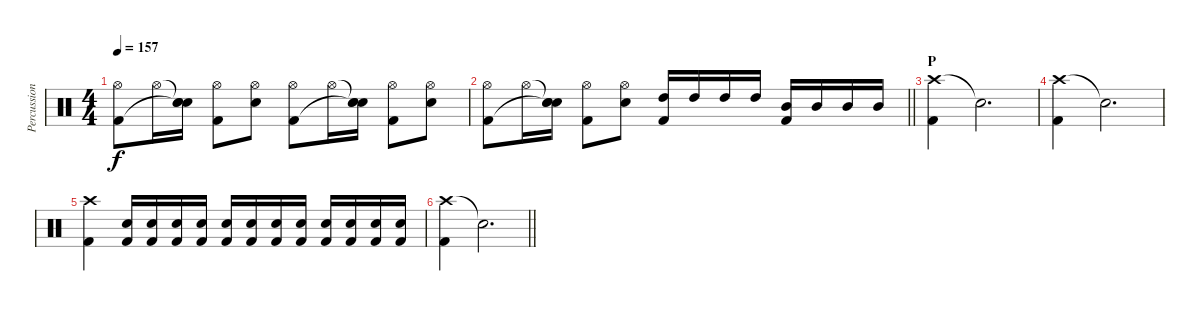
\track ("Percussion" "Percussion") {instrument percussion}
\staff {score}
\articulation defaults
\ts (4 4)
\tempo 157
\clef neutral
\ks c
("Hi-Hat (open)" "Kick (hit) 2").8{dy f} "Hi-Hat (open)".16 ("Snare (hit)"{t} "Snare (hit)"{t} "Electric Snare (hit)").16 ("Hi-Hat (open)" "Kick (hit) 2").8 ("Hi-Hat (open)" "Electric Snare (hit)").8 ("Hi-Hat (open)" "Kick (hit) 2").8 "Hi-Hat (open)".16 ("Snare (hit)"{t} "Snare (hit)"{t} "Electric Snare (hit)").16 ("Hi-Hat (open)" "Kick (hit) 2").8 ("Hi-Hat (open)" "Electric Snare (hit)").8 |
\barLineRight lightlight
("Hi-Hat (open)" "Kick (hit) 2").8 "Hi-Hat (open)".16 ("Snare (hit)"{t} "Snare (hit)"{t} "Electric Snare (hit)").16 ("Hi-Hat (open)" "Kick (hit) 2").8 ("Hi-Hat (open)" "Electric Snare (hit)").8 ("High Tom (hit)" "Kick (hit) 2").16 "High Tom (hit)".16 "High Tom (hit)".16 "High Tom (hit)".16 ("Mid Tom (hit)" "Kick (hit) 2").16 "Mid Tom (hit)".16 "Mid Tom (hit)".16 "Mid Tom (hit)".16 |
\section ("" "P")
("Crash high (hit)" "Kick (hit) 2").4 "Snare (hit)"{t}.2{d} |
("Crash high (hit)" "Kick (hit) 2").4 "Snare (hit)"{t}.2{d} |
("Crash high (hit)" "Kick (hit) 2").4 ("Electric Snare (hit)" "Kick (hit) 2").16 ("Electric Snare (hit)" "Kick (hit) 2").16 ("Electric Snare (hit)" "Kick (hit) 2").16 ("Electric Snare (hit)" "Kick (hit) 2").16 ("Electric Snare (hit)" "Kick (hit) 2").16 ("Electric Snare (hit)" "Kick (hit) 2").16 ("Electric Snare (hit)" "Kick (hit) 2").16 ("Electric Snare (hit)" "Kick (hit) 2").16 ("Electric Snare (hit)" "Kick (hit) 2").16 ("Electric Snare (hit)" "Kick (hit) 2").16 ("Electric Snare (hit)" "Kick (hit) 2").16 ("Electric Snare (hit)" "Kick (hit) 2").16 |
\barLineRight lightlight
("Crash high (hit)" "Kick (hit) 2").4 "Snare (hit)"{t}.2{d}
